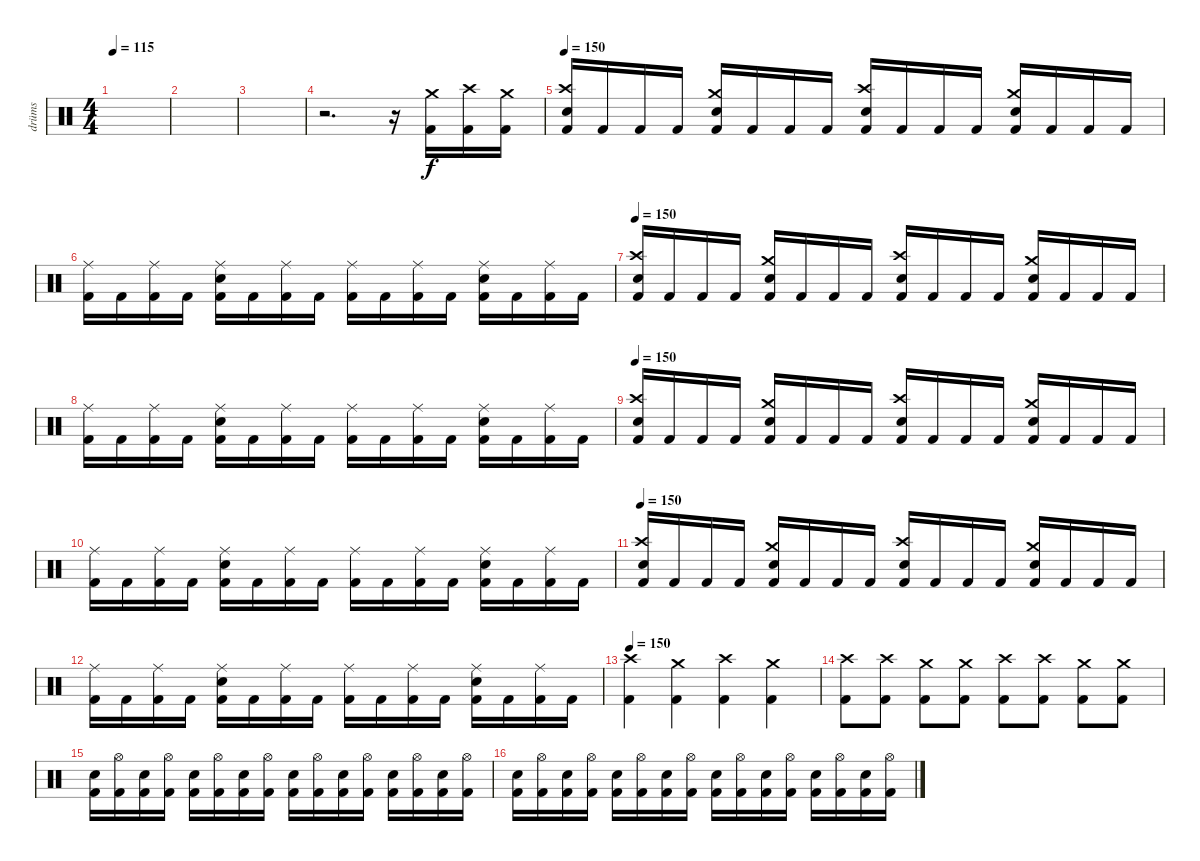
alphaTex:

\track ("drüms" "drüms") {instrument percussion}
\staff {score}
\articulation defaults
\ts (4 4)
\tempo 115
\clef neutral
\ks c
|
|
|
r.2{d} r.16 ("Kick (hit) 2" "Crash medium (hit)").16 ("Kick (hit) 2" "Crash high (hit)").16 ("Kick (hit) 2" "Crash medium (hit)").16 |
\tempo 150
("Electric Snare (hit)" "Crash high (hit)" "Kick (hit) 2").16 "Kick (hit) 2".16 "Kick (hit) 2".16 "Kick (hit) 2".16 ("Electric Snare (hit)" "Crash medium (hit)" "Kick (hit) 2").16 "Kick (hit) 2".16 "Kick (hit) 2".16 "Kick (hit) 2".16 ("Electric Snare (hit)" "Crash high (hit)" "Kick (hit) 2").16 "Kick (hit) 2".16 "Kick (hit) 2".16 "Kick (hit) 2".16 ("Electric Snare (hit)" "Crash medium (hit)" "Kick (hit) 2").16 "Kick (hit) 2".16 "Kick (hit) 2".16 "Kick (hit) 2".16 |
("Ride (middle)" "Kick (hit) 2").16 "Kick (hit) 2".16 ("Ride (middle)" "Kick (hit) 2").16 "Kick (hit) 2".16 ("Ride (middle)" "Electric Snare (hit)" "Kick (hit) 2").16 "Kick (hit) 2".16 ("Ride (middle)" "Kick (hit) 2").16 "Kick (hit) 2".16 ("Ride (middle)" "Kick (hit) 2").16 "Kick (hit) 2".16 ("Ride (middle)" "Kick (hit) 2").16 "Kick (hit) 2".16 ("Ride (middle)" "Electric Snare (hit)" "Kick (hit) 2").16 "Kick (hit) 2".16 ("Ride (middle)" "Kick (hit) 2").16 "Kick (hit) 2".16 |
\tempo 150
("Electric Snare (hit)" "Crash high (hit)" "Kick (hit) 2").16 "Kick (hit) 2".16 "Kick (hit) 2".16 "Kick (hit) 2".16 ("Electric Snare (hit)" "Crash medium (hit)" "Kick (hit) 2").16 "Kick (hit) 2".16 "Kick (hit) 2".16 "Kick (hit) 2".16 ("Electric Snare (hit)" "Crash high (hit)" "Kick (hit) 2").16 "Kick (hit) 2".16 "Kick (hit) 2".16 "Kick (hit) 2".16 ("Electric Snare (hit)" "Crash medium (hit)" "Kick (hit) 2").16 "Kick (hit) 2".16 "Kick (hit) 2".16 "Kick (hit) 2".16 |
("Ride (middle)" "Kick (hit) 2").16 "Kick (hit) 2".16 ("Ride (middle)" "Kick (hit) 2").16 "Kick (hit) 2".16 ("Ride (middle)" "Electric Snare (hit)" "Kick (hit) 2").16 "Kick (hit) 2".16 ("Ride (middle)" "Kick (hit) 2").16 "Kick (hit) 2".16 ("Ride (middle)" "Kick (hit) 2").16 "Kick (hit) 2".16 ("Ride (middle)" "Kick (hit) 2").16 "Kick (hit) 2".16 ("Ride (middle)" "Electric Snare (hit)" "Kick (hit) 2").16 "Kick (hit) 2".16 ("Ride (middle)" "Kick (hit) 2").16 "Kick (hit) 2".16 |
\tempo 150
("Electric Snare (hit)" "Crash high (hit)" "Kick (hit) 2").16 "Kick (hit) 2".16 "Kick (hit) 2".16 "Kick (hit) 2".16 ("Electric Snare (hit)" "Crash medium (hit)" "Kick (hit) 2").16 "Kick (hit) 2".16 "Kick (hit) 2".16 "Kick (hit) 2".16 ("Electric Snare (hit)" "Crash high (hit)" "Kick (hit) 2").16 "Kick (hit) 2".16 "Kick (hit) 2".16 "Kick (hit) 2".16 ("Electric Snare (hit)" "Crash medium (hit)" "Kick (hit) 2").16 "Kick (hit) 2".16 "Kick (hit) 2".16 "Kick (hit) 2".16 |
("Ride (middle)" "Kick (hit) 2").16 "Kick (hit) 2".16 ("Ride (middle)" "Kick (hit) 2").16 "Kick (hit) 2".16 ("Ride (middle)" "Electric Snare (hit)" "Kick (hit) 2").16 "Kick (hit) 2".16 ("Ride (middle)" "Kick (hit) 2").16 "Kick (hit) 2".16 ("Ride (middle)" "Kick (hit) 2").16 "Kick (hit) 2".16 ("Ride (middle)" "Kick (hit) 2").16 "Kick (hit) 2".16 ("Ride (middle)" "Electric Snare (hit)" "Kick (hit) 2").16 "Kick (hit) 2".16 ("Ride (middle)" "Kick (hit) 2").16 "Kick (hit) 2".16 |
\tempo 150
("Electric Snare (hit)" "Crash high (hit)" "Kick (hit) 2").16 "Kick (hit) 2".16 "Kick (hit) 2".16 "Kick (hit) 2".16 ("Electric Snare (hit)" "Crash medium (hit)" "Kick (hit) 2").16 "Kick (hit) 2".16 "Kick (hit) 2".16 "Kick (hit) 2".16 ("Electric Snare (hit)" "Crash high (hit)" "Kick (hit) 2").16 "Kick (hit) 2".16 "Kick (hit) 2".16 "Kick (hit) 2".16 ("Electric Snare (hit)" "Crash medium (hit)" "Kick (hit) 2").16 "Kick (hit) 2".16 "Kick (hit) 2".16 "Kick (hit) 2".16 |
("Ride (middle)" "Kick (hit) 2").16 "Kick (hit) 2".16 ("Ride (middle)" "Kick (hit) 2").16 "Kick (hit) 2".16 ("Ride (middle)" "Electric Snare (hit)" "Kick (hit) 2").16 "Kick (hit) 2".16 ("Ride (middle)" "Kick (hit) 2").16 "Kick (hit) 2".16 ("Ride (middle)" "Kick (hit) 2").16 "Kick (hit) 2".16 ("Ride (middle)" "Kick (hit) 2").16 "Kick (hit) 2".16 ("Ride (middle)" "Electric Snare (hit)" "Kick (hit) 2").16 "Kick (hit) 2".16 ("Ride (middle)" "Kick (hit) 2").16 "Kick (hit) 2".16 |
\tempo 150
("Crash high (hit)" "Kick (hit) 2").4 ("Crash medium (hit)" "Kick (hit) 2").4 ("Crash high (hit)" "Kick (hit) 2").4 ("Crash medium (hit)" "Kick (hit) 2").4 |
("Crash high (hit)" "Kick (hit) 2").8 ("Crash high (hit)" "Kick (hit) 2").8 ("Crash medium (hit)" "Kick (hit) 2").8 ("Crash medium (hit)" "Kick (hit) 2").8 ("Crash high (hit)" "Kick (hit) 2").8 ("Crash high (hit)" "Kick (hit) 2").8 ("Crash medium (hit)" "Kick (hit) 2").8 ("Crash medium (hit)" "Kick (hit) 2").8 |
("Electric Snare (hit)" "Kick (hit) 2").16 ("Hi-Hat (open)" "Kick (hit) 2").16 ("Electric Snare (hit)" "Kick (hit) 2").16 ("Hi-Hat (open)" "Kick (hit) 2").16 ("Electric Snare (hit)" "Kick (hit) 2").16 ("Hi-Hat (open)" "Kick (hit) 2").16 ("Electric Snare (hit)" "Kick (hit) 2").16 ("Hi-Hat (open)" "Kick (hit) 2").16 ("Electric Snare (hit)" "Kick (hit) 2").16 ("Hi-Hat (open)" "Kick (hit) 2").16 ("Electric Snare (hit)" "Kick (hit) 2").16 ("Hi-Hat (open)" "Kick (hit) 2").16 ("Electric Snare (hit)" "Kick (hit) 2").16 ("Hi-Hat (open)" "Kick (hit) 2").16 ("Electric Snare (hit)" "Kick (hit) 2").16 ("Hi-Hat (open)" "Kick (hit) 2").16 |
("Electric Snare (hit)" "Kick (hit) 2").16 ("Hi-Hat (open)" "Kick (hit) 2").16 ("Electric Snare (hit)" "Kick (hit) 2").16 ("Hi-Hat (open)" "Kick (hit) 2").16 ("Electric Snare (hit)" "Kick (hit) 2").16 ("Hi-Hat (open)" "Kick (hit) 2").16 ("Electric Snare (hit)" "Kick (hit) 2").16 ("Hi-Hat (open)" "Kick (hit) 2").16 ("Electric Snare (hit)" "Kick (hit) 2").16 ("Hi-Hat (open)" "Kick (hit) 2").16 ("Electric Snare (hit)" "Kick (hit) 2").16 ("Hi-Hat (open)" "Kick (hit) 2").16 ("Electric Snare (hit)" "Kick (hit) 2").16 ("Hi-Hat (open)" "Kick (hit) 2").16 ("Electric Snare (hit)" "Kick (hit) 2").16 ("Hi-Hat (open)" "Kick (hit) 2").16
